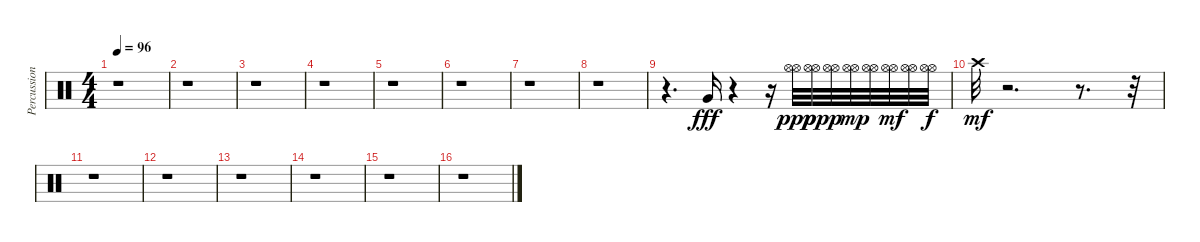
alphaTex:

\track ("Percussion" "Percussion") {instrument percussion}
\staff {score}
\articulation defaults
\ts (4 4)
\tempo 96
\clef neutral
\ks c
r.1{dy p} |
r.1 |
r.1 |
r.1 |
r.1 |
r.1 |
r.1 |
r.1 |
r.4{d} "Very Low Tom (hit)".16{dy fff} r.4 r.16 ("Hi-Hat (open)" "Hi-Hat (open)").32{dy ppp} ("Hi-Hat (open)" "Hi-Hat (open)").32{dy pp} ("Hi-Hat (open)" "Hi-Hat (open)").32{dy p} ("Hi-Hat (open)" "Hi-Hat (open)").32{dy mp} ("Hi-Hat (open)" "Hi-Hat (open)").32 ("Hi-Hat (open)" "Hi-Hat (open)").32{dy mf} ("Hi-Hat (open)" "Hi-Hat (open)").32 ("Hi-Hat (open)" "Hi-Hat (open)").32{dy f} |
"Crash high (hit)".32{dy mf} r.2{d} r.8{d} r.32 |
r.1 |
r.1 |
r.1 |
r.1 |
r.1 |
r.1
